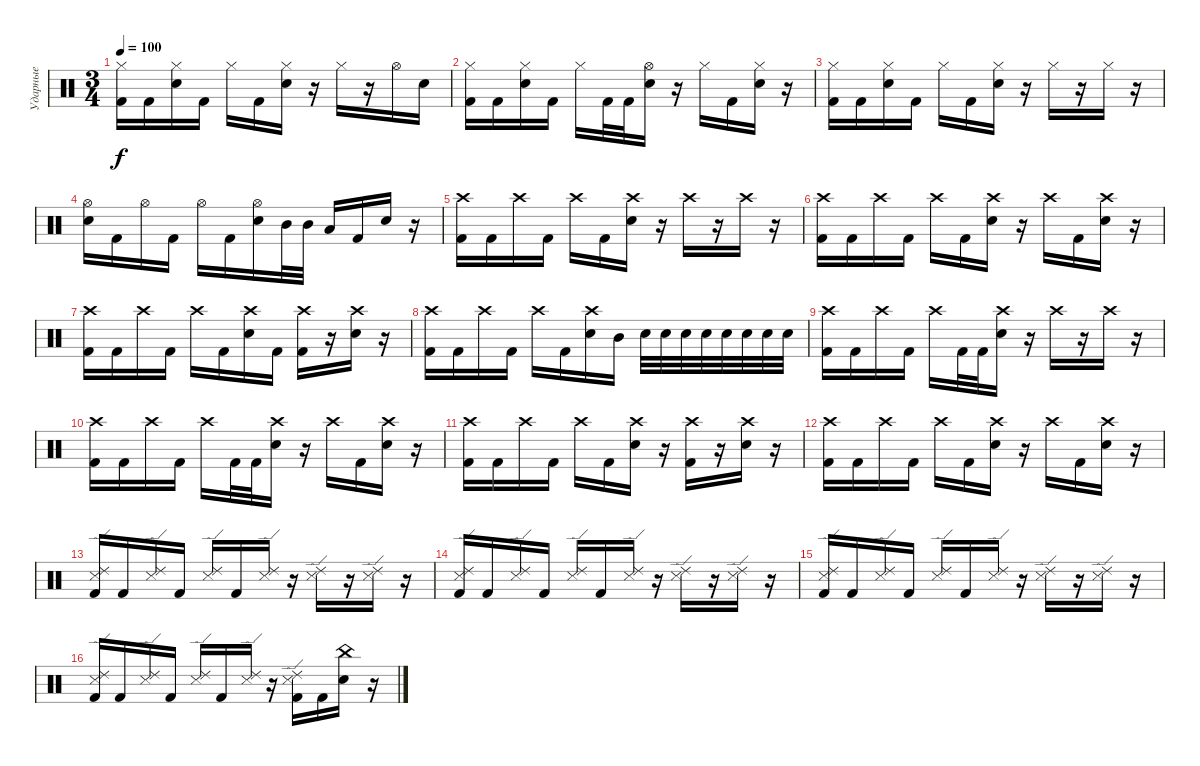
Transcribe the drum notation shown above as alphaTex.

\track ("Ударные" "Ударные") {instrument percussion}
\staff {score}
\articulation defaults
\ts (3 4)
\tempo 100
\clef neutral
\ks c
("Hi-Hat (closed)" "Kick (hit) 2").16{dy f} "Kick (hit) 2".16 ("Hi-Hat (closed)" "Electric Snare (hit)").16 "Kick (hit) 2".16 "Hi-Hat (closed)".16 "Kick (hit) 2".16 ("Hi-Hat (closed)" "Electric Snare (hit)").16 r.16 "Hi-Hat (closed)".16 r.16 "Hi-Hat (open)".16 "Electric Snare (hit)".16 |
("Hi-Hat (closed)" "Kick (hit) 2").16 "Kick (hit) 2".16 ("Hi-Hat (closed)" "Electric Snare (hit)").16 "Kick (hit) 2".16 "Hi-Hat (closed)".16 "Kick (hit) 2".32 "Kick (hit) 2".32 ("Hi-Hat (open)" "Electric Snare (hit)").16 r.16 "Hi-Hat (closed)".16 "Kick (hit) 2".16 ("Hi-Hat (closed)" "Electric Snare (hit)").16 r.16 |
("Hi-Hat (closed)" "Kick (hit) 2").16 "Kick (hit) 2".16 ("Hi-Hat (closed)" "Electric Snare (hit)").16 "Kick (hit) 2".16 "Hi-Hat (closed)".16 "Kick (hit) 2".16 ("Hi-Hat (closed)" "Electric Snare (hit)").16 r.16 "Hi-Hat (closed)".16 r.16 "Hi-Hat (closed)".16 r.16 |
("Hi-Hat (open)" "Electric Snare (hit)").16 "Kick (hit) 2".16 "Hi-Hat (open)".16 "Kick (hit) 2".16 "Hi-Hat (open)".16 "Kick (hit) 2".16 ("Hi-Hat (open)" "Electric Snare (hit)").16 "Mid Tom (hit)".32 "Mid Tom (hit)".32 "Low Tom (hit)".16 "Kick (hit) 2".16 "Electric Snare (hit)".16 r.16 |
("Crash high (hit)" "Kick (hit) 2").16 "Kick (hit) 2".16 "Crash high (hit)".16 "Kick (hit) 2".16 "Crash high (hit)".16 "Kick (hit) 2".16 ("Crash high (hit)" "Electric Snare (hit)").16 r.16 "Crash high (hit)".16 r.16 "Crash high (hit)".16 r.16 |
("Crash high (hit)" "Kick (hit) 2").16 "Kick (hit) 2".16 "Crash high (hit)".16 "Kick (hit) 2".16 "Crash high (hit)".16 "Kick (hit) 2".16 ("Crash high (hit)" "Electric Snare (hit)").16 r.16 "Crash high (hit)".16 "Kick (hit) 2".16 ("Crash high (hit)" "Electric Snare (hit)").16 r.16 |
("Crash high (hit)" "Kick (hit) 2").16 "Kick (hit) 2".16 "Crash high (hit)".16 "Kick (hit) 2".16 "Crash high (hit)".16 "Kick (hit) 2".16 ("Crash high (hit)" "Electric Snare (hit)").16 "Kick (hit) 2".16 ("Crash high (hit)" "Kick (hit) 2").16 r.16 ("Crash high (hit)" "Electric Snare (hit)").16 r.16 |
("Crash high (hit)" "Kick (hit) 2").16 "Kick (hit) 2".16 "Crash high (hit)".16 "Kick (hit) 2".16 "Crash high (hit)".16 "Kick (hit) 2".16 ("Crash high (hit)" "Electric Snare (hit)").16 "Mid Tom (hit)".16 "Electric Snare (hit)".32 "Electric Snare (hit)".32 "Electric Snare (hit)".32 "Electric Snare (hit)".32 "Electric Snare (hit)".32 "Electric Snare (hit)".32 "Electric Snare (hit)".32 "Electric Snare (hit)".32 |
("Crash high (hit)" "Kick (hit) 2").16 "Kick (hit) 2".16 "Crash high (hit)".16 "Kick (hit) 2".16 "Crash high (hit)".16 "Kick (hit) 2".32 "Kick (hit) 2".32 ("Crash high (hit)" "Electric Snare (hit)").16 r.16 "Crash high (hit)".16 r.16 "Crash high (hit)".16 r.16 |
("Crash high (hit)" "Kick (hit) 2").16 "Kick (hit) 2".16 "Crash high (hit)".16 "Kick (hit) 2".16 "Crash high (hit)".16 "Kick (hit) 2".32 "Kick (hit) 2".32 ("Crash high (hit)" "Electric Snare (hit)").16 r.16 "Crash high (hit)".16 "Kick (hit) 2".16 ("Crash high (hit)" "Electric Snare (hit)").16 r.16 |
("Crash high (hit)" "Kick (hit) 2").16 "Kick (hit) 2".16 "Crash high (hit)".16 "Kick (hit) 2".16 "Crash high (hit)".16 "Kick (hit) 2".16 ("Crash high (hit)" "Electric Snare (hit)").16 r.16 ("Crash high (hit)" "Kick (hit) 2").16 r.16 ("Crash high (hit)" "Electric Snare (hit)").16 r.16 |
("Crash high (hit)" "Kick (hit) 2").16 "Kick (hit) 2".16 "Crash high (hit)".16 "Kick (hit) 2".16 "Crash high (hit)".16 "Kick (hit) 2".16 ("Crash high (hit)" "Electric Snare (hit)").16 r.16 "Crash high (hit)".16 "Kick (hit) 2".16 ("Crash high (hit)" "Electric Snare (hit)").16 r.16 |
("Ride (edge) 2" "Metronome (hit)" "Kick (hit) 2").16 "Kick (hit) 2".16 ("Ride (edge) 2" "Metronome (hit)").16 "Kick (hit) 2".16 ("Ride (edge) 2" "Metronome (hit)").16 "Kick (hit) 2".16 ("Ride (edge) 2" "Metronome (hit)").16 r.16 ("Ride (edge) 2" "Metronome (hit)").16 r.16 ("Ride (edge) 2" "Metronome (hit)").16 r.16 |
("Ride (edge) 2" "Metronome (hit)" "Kick (hit) 2").16 "Kick (hit) 2".16 ("Ride (edge) 2" "Metronome (hit)").16 "Kick (hit) 2".16 ("Ride (edge) 2" "Metronome (hit)").16 "Kick (hit) 2".16 ("Ride (edge) 2" "Metronome (hit)").16 r.16 ("Ride (edge) 2" "Metronome (hit)").16 r.16 ("Ride (edge) 2" "Metronome (hit)").16 r.16 |
("Ride (edge) 2" "Metronome (hit)" "Kick (hit) 2").16 "Kick (hit) 2".16 ("Ride (edge) 2" "Metronome (hit)").16 "Kick (hit) 2".16 ("Ride (edge) 2" "Metronome (hit)").16 "Kick (hit) 2".16 ("Ride (edge) 2" "Metronome (hit)").16 r.16 ("Ride (edge) 2" "Metronome (hit)").16 r.16 ("Ride (edge) 2" "Metronome (hit)").16 r.16 |
("Ride (edge) 2" "Metronome (hit)" "Kick (hit) 2").16 "Kick (hit) 2".16 ("Ride (edge) 2" "Metronome (hit)").16 "Kick (hit) 2".16 ("Ride (edge) 2" "Metronome (hit)").16 "Kick (hit) 2".16 ("Ride (edge) 2" "Metronome (hit)").16 r.16 ("Ride (edge) 2" "Metronome (hit)" "Kick (hit) 2").16 "Kick (hit) 2".16 ("China (hit)" "Electric Snare (hit)").16 r.16
